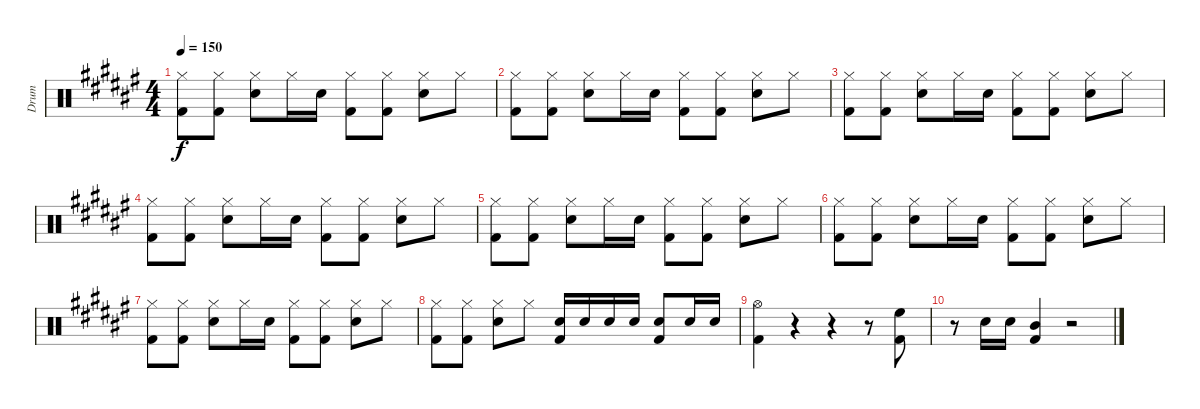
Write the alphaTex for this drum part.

\track ("Drum" "Drum") {instrument percussion}
\staff {score}
\articulation defaults
\ts (4 4)
\tempo 150
\clef neutral
\ks d#minor
("Hi-Hat (closed)" "Kick (hit) 2").8{dy f} ("Hi-Hat (closed)" "Kick (hit) 2").8 ("Hi-Hat (closed)" "Snare (hit) 2").8 "Hi-Hat (closed)".16 "Snare (hit) 2".16 ("Hi-Hat (closed)" "Kick (hit) 2").8 ("Hi-Hat (closed)" "Kick (hit) 2").8 ("Hi-Hat (closed)" "Snare (hit) 2").8 "Hi-Hat (closed)".8 |
("Hi-Hat (closed)" "Kick (hit) 2").8 ("Hi-Hat (closed)" "Kick (hit) 2").8 ("Hi-Hat (closed)" "Snare (hit) 2").8 "Hi-Hat (closed)".16 "Snare (hit) 2".16 ("Hi-Hat (closed)" "Kick (hit) 2").8 ("Hi-Hat (closed)" "Kick (hit) 2").8 ("Hi-Hat (closed)" "Snare (hit) 2").8 "Hi-Hat (closed)".8 |
("Hi-Hat (closed)" "Kick (hit) 2").8 ("Hi-Hat (closed)" "Kick (hit) 2").8 ("Hi-Hat (closed)" "Snare (hit) 2").8 "Hi-Hat (closed)".16 "Snare (hit) 2".16 ("Hi-Hat (closed)" "Kick (hit) 2").8 ("Hi-Hat (closed)" "Kick (hit) 2").8 ("Hi-Hat (closed)" "Snare (hit) 2").8 "Hi-Hat (closed)".8 |
("Hi-Hat (closed)" "Kick (hit) 2").8 ("Hi-Hat (closed)" "Kick (hit) 2").8 ("Hi-Hat (closed)" "Snare (hit) 2").8 "Hi-Hat (closed)".16 "Snare (hit) 2".16 ("Hi-Hat (closed)" "Kick (hit) 2").8 ("Hi-Hat (closed)" "Kick (hit) 2").8 ("Hi-Hat (closed)" "Snare (hit) 2").8 "Hi-Hat (closed)".8 |
("Hi-Hat (closed)" "Kick (hit) 2").8 ("Hi-Hat (closed)" "Kick (hit) 2").8 ("Hi-Hat (closed)" "Snare (hit) 2").8 "Hi-Hat (closed)".16 "Snare (hit) 2".16 ("Hi-Hat (closed)" "Kick (hit) 2").8 ("Hi-Hat (closed)" "Kick (hit) 2").8 ("Hi-Hat (closed)" "Snare (hit) 2").8 "Hi-Hat (closed)".8 |
("Hi-Hat (closed)" "Kick (hit) 2").8 ("Hi-Hat (closed)" "Kick (hit) 2").8 ("Hi-Hat (closed)" "Snare (hit) 2").8 "Hi-Hat (closed)".16 "Snare (hit) 2".16 ("Hi-Hat (closed)" "Kick (hit) 2").8 ("Hi-Hat (closed)" "Kick (hit) 2").8 ("Hi-Hat (closed)" "Snare (hit) 2").8 "Hi-Hat (closed)".8 |
("Hi-Hat (closed)" "Kick (hit) 2").8 ("Hi-Hat (closed)" "Kick (hit) 2").8 ("Hi-Hat (closed)" "Snare (hit) 2").8 "Hi-Hat (closed)".16 "Snare (hit) 2".16 ("Hi-Hat (closed)" "Kick (hit) 2").8 ("Hi-Hat (closed)" "Kick (hit) 2").8 ("Hi-Hat (closed)" "Snare (hit) 2").8 "Hi-Hat (closed)".8 |
("Hi-Hat (closed)" "Kick (hit) 2").8 ("Hi-Hat (closed)" "Kick (hit) 2").8 ("Hi-Hat (closed)" "Snare (hit) 2").8 "Hi-Hat (closed)".8 ("Snare (hit) 2" "Kick (hit) 2").16 "Snare (hit) 2".16 "Snare (hit) 2".16 "Snare (hit) 2".16 ("Snare (hit) 2" "Kick (hit) 2").8 "Snare (hit) 2".16 "Snare (hit) 2".16 |
("Hi-Hat (open)" "Kick (hit) 2").4 r.4 r.4 r.8 ("High Floor Tom (hit)" "Kick (hit) 2").8 |
r.8 "Snare (hit) 2".16 "Snare (hit) 2".16 ("Mid Tom (hit)" "Kick (hit) 2").4 r.2
